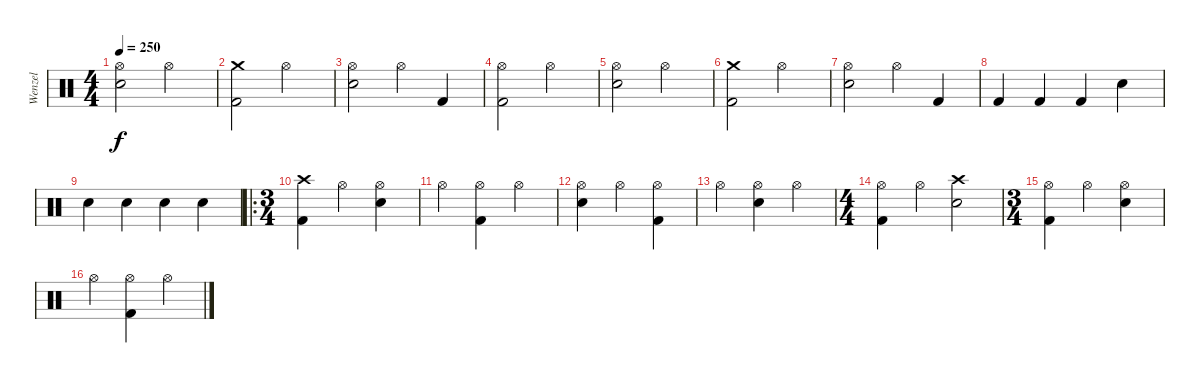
\track ("Wenzel" "Wenzel") {instrument percussion}
\staff {score}
\articulation defaults
\ts (4 4)
\tempo 250
\clef neutral
\ks c
("Hi-Hat (open)" "Snare (hit) 2").2{dy f} "Hi-Hat (open)".2 |
("Crash medium (hit)" "Kick (hit) 2").2 "Hi-Hat (open)".2 |
("Hi-Hat (open)" "Snare (hit) 2").2 "Hi-Hat (open)".4 "Kick (hit) 2".4 |
("Hi-Hat (open)" "Kick (hit) 2").2 "Hi-Hat (open)".2 |
("Hi-Hat (open)" "Snare (hit) 2").2 "Hi-Hat (open)".2 |
("Crash medium (hit)" "Kick (hit) 2").2 "Hi-Hat (open)".2 |
("Hi-Hat (open)" "Snare (hit) 2").2 "Hi-Hat (open)".4 "Kick (hit) 2".4 |
"Kick (hit) 2".4 "Kick (hit) 2".4 "Kick (hit) 2".4 "Snare (hit) 2".4 |
"Snare (hit) 2".4 "Snare (hit) 2".4 "Snare (hit) 2".4 "Snare (hit) 2".4 |
\ro
\ts (3 4)
("Crash high (hit)" "Kick (hit) 2").4 "Hi-Hat (open)".4 ("Hi-Hat (open)" "Snare (hit) 2").4 |
"Hi-Hat (open)".4 ("Hi-Hat (open)" "Kick (hit) 2").4 "Hi-Hat (open)".4 |
("Hi-Hat (open)" "Snare (hit) 2").4 "Hi-Hat (open)".4 ("Hi-Hat (open)" "Kick (hit) 2").4 |
"Hi-Hat (open)".4 ("Hi-Hat (open)" "Snare (hit) 2").4 "Hi-Hat (open)".4 |
\ts (4 4)
("Hi-Hat (open)" "Kick (hit) 2").4 "Hi-Hat (open)".4 ("Crash high (hit)" "Snare (hit) 2").2 |
\ts (3 4)
("Hi-Hat (open)" "Kick (hit) 2").4 "Hi-Hat (open)".4 ("Hi-Hat (open)" "Snare (hit) 2").4 |
"Hi-Hat (open)".4 ("Hi-Hat (open)" "Kick (hit) 2").4 "Hi-Hat (open)".4
